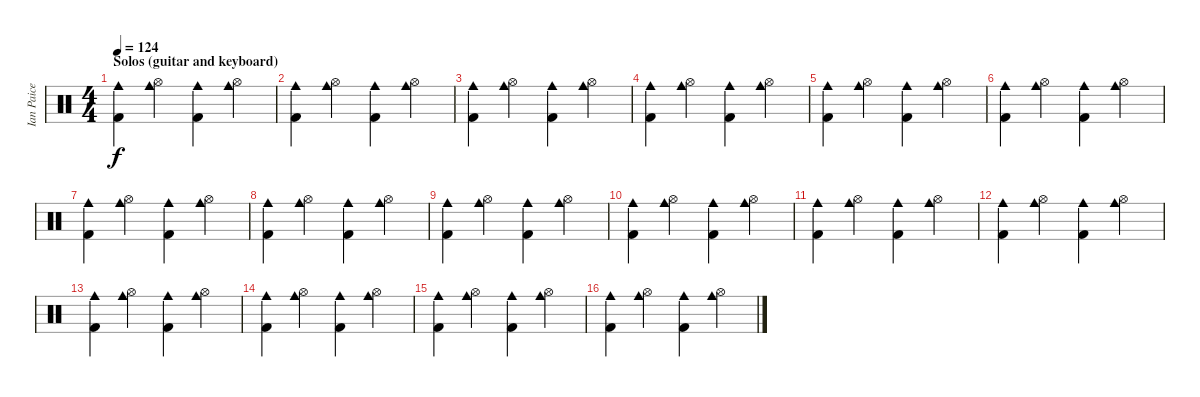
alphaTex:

\track ("Ian Paice (drum)" "Ian Paice ") {instrument percussion}
\staff {score}
\articulation defaults
\ts (4 4)
\section ("" "Solos (guitar and keyboard)")
\tempo 124
\clef neutral
\ks c
("Cowbell medium (hit)" "Kick (hit) 2").4{dy f} ("Hi-Hat (open)" "Cowbell medium (hit)").4 ("Cowbell medium (hit)" "Kick (hit) 2").4 ("Hi-Hat (open)" "Cowbell medium (hit)").4 |
("Cowbell medium (hit)" "Kick (hit) 2").4 ("Hi-Hat (open)" "Cowbell medium (hit)").4 ("Cowbell medium (hit)" "Kick (hit) 2").4 ("Hi-Hat (open)" "Cowbell medium (hit)").4 |
("Cowbell medium (hit)" "Kick (hit) 2").4 ("Hi-Hat (open)" "Cowbell medium (hit)").4 ("Cowbell medium (hit)" "Kick (hit) 2").4 ("Hi-Hat (open)" "Cowbell medium (hit)").4 |
("Cowbell medium (hit)" "Kick (hit) 2").4 ("Hi-Hat (open)" "Cowbell medium (hit)").4 ("Cowbell medium (hit)" "Kick (hit) 2").4 ("Hi-Hat (open)" "Cowbell medium (hit)").4 |
("Cowbell medium (hit)" "Kick (hit) 2").4 ("Hi-Hat (open)" "Cowbell medium (hit)").4 ("Cowbell medium (hit)" "Kick (hit) 2").4 ("Hi-Hat (open)" "Cowbell medium (hit)").4 |
("Cowbell medium (hit)" "Kick (hit) 2").4 ("Hi-Hat (open)" "Cowbell medium (hit)").4 ("Cowbell medium (hit)" "Kick (hit) 2").4 ("Hi-Hat (open)" "Cowbell medium (hit)").4 |
("Cowbell medium (hit)" "Kick (hit) 2").4 ("Hi-Hat (open)" "Cowbell medium (hit)").4 ("Cowbell medium (hit)" "Kick (hit) 2").4 ("Hi-Hat (open)" "Cowbell medium (hit)").4 |
("Cowbell medium (hit)" "Kick (hit) 2").4 ("Hi-Hat (open)" "Cowbell medium (hit)").4 ("Cowbell medium (hit)" "Kick (hit) 2").4 ("Hi-Hat (open)" "Cowbell medium (hit)").4 |
("Cowbell medium (hit)" "Kick (hit) 2").4 ("Hi-Hat (open)" "Cowbell medium (hit)").4 ("Cowbell medium (hit)" "Kick (hit) 2").4 ("Hi-Hat (open)" "Cowbell medium (hit)").4 |
("Cowbell medium (hit)" "Kick (hit) 2").4 ("Hi-Hat (open)" "Cowbell medium (hit)").4 ("Cowbell medium (hit)" "Kick (hit) 2").4 ("Hi-Hat (open)" "Cowbell medium (hit)").4 |
("Cowbell medium (hit)" "Kick (hit) 2").4 ("Hi-Hat (open)" "Cowbell medium (hit)").4 ("Cowbell medium (hit)" "Kick (hit) 2").4 ("Hi-Hat (open)" "Cowbell medium (hit)").4 |
("Cowbell medium (hit)" "Kick (hit) 2").4 ("Hi-Hat (open)" "Cowbell medium (hit)").4 ("Cowbell medium (hit)" "Kick (hit) 2").4 ("Hi-Hat (open)" "Cowbell medium (hit)").4 |
("Cowbell medium (hit)" "Kick (hit) 2").4 ("Hi-Hat (open)" "Cowbell medium (hit)").4 ("Cowbell medium (hit)" "Kick (hit) 2").4 ("Hi-Hat (open)" "Cowbell medium (hit)").4 |
("Cowbell medium (hit)" "Kick (hit) 2").4 ("Hi-Hat (open)" "Cowbell medium (hit)").4 ("Cowbell medium (hit)" "Kick (hit) 2").4 ("Hi-Hat (open)" "Cowbell medium (hit)").4 |
("Cowbell medium (hit)" "Kick (hit) 2").4 ("Hi-Hat (open)" "Cowbell medium (hit)").4 ("Cowbell medium (hit)" "Kick (hit) 2").4 ("Hi-Hat (open)" "Cowbell medium (hit)").4 |
("Cowbell medium (hit)" "Kick (hit) 2").4 ("Hi-Hat (open)" "Cowbell medium (hit)").4 ("Cowbell medium (hit)" "Kick (hit) 2").4 ("Hi-Hat (open)" "Cowbell medium (hit)").4
